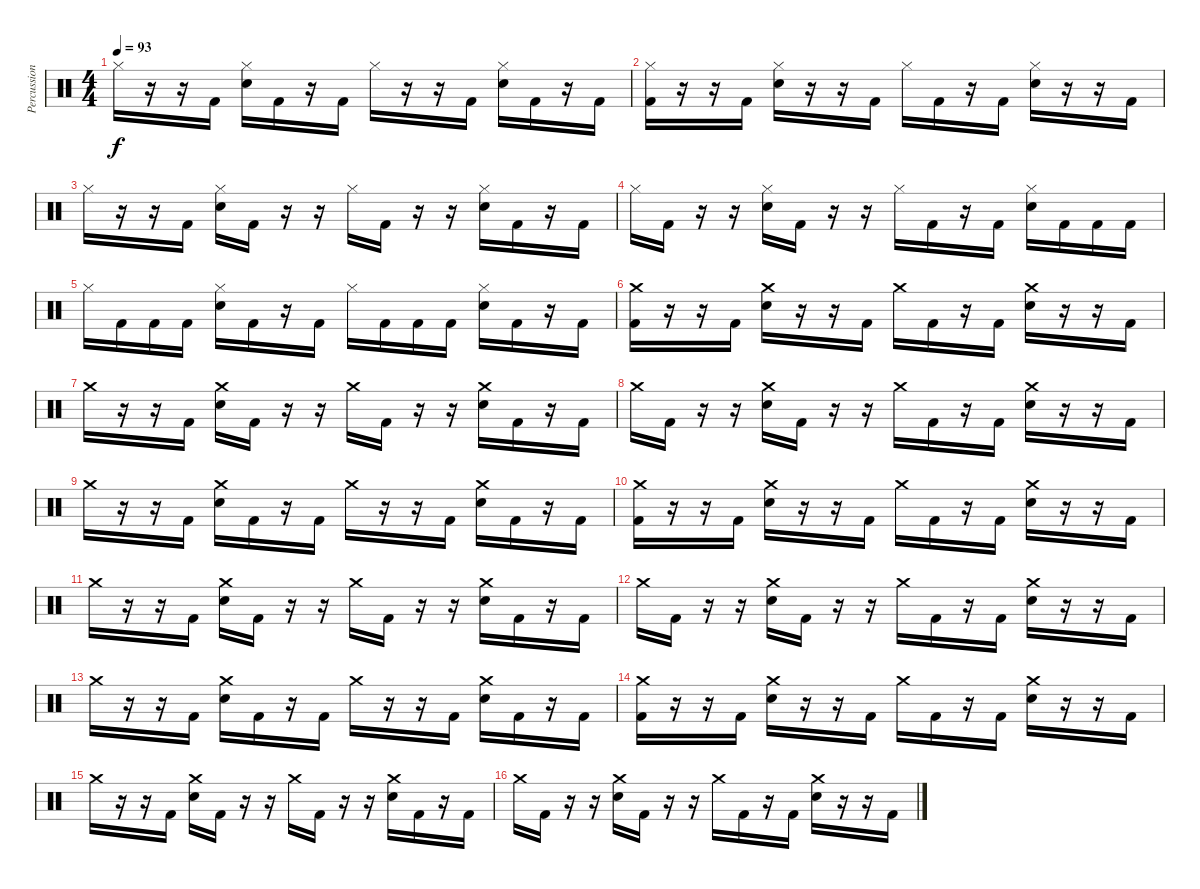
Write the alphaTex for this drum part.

\track ("Percussions" "Percussion") {instrument percussion}
\staff {score}
\articulation defaults
\ts (4 4)
\tempo 93
\clef neutral
\ks c "Hi-Hat (closed)".16{dy f}
r.16 r.16 "Kick (hit) 2".16 ("Hi-Hat (closed)" "Electric Snare (hit)").16 "Kick (hit) 2".16 r.16 "Kick (hit) 2".16 "Hi-Hat (closed)".16 r.16 r.16 "Kick (hit) 2".16 ("Hi-Hat (closed)" "Electric Snare (hit)").16 "Kick (hit) 2".16 r.16 "Kick (hit) 2".16 |
("Hi-Hat (closed)" "Kick (hit) 2").16 r.16 r.16 "Kick (hit) 2".16 ("Hi-Hat (closed)" "Electric Snare (hit)").16 r.16 r.16 "Kick (hit) 2".16 "Hi-Hat (closed)".16 "Kick (hit) 2".16 r.16 "Kick (hit) 2".16 ("Hi-Hat (closed)" "Electric Snare (hit)").16 r.16 r.16 "Kick (hit) 2".16 |
"Hi-Hat (closed)".16 r.16 r.16 "Kick (hit) 2".16 ("Hi-Hat (closed)" "Electric Snare (hit)").16 "Kick (hit) 2".16 r.16 r.16 "Hi-Hat (closed)".16 "Kick (hit) 2".16 r.16 r.16 ("Hi-Hat (closed)" "Electric Snare (hit)").16 "Kick (hit) 2".16 r.16 "Kick (hit) 2".16 |
"Hi-Hat (closed)".16 "Kick (hit) 2".16 r.16 r.16 ("Hi-Hat (closed)" "Electric Snare (hit)").16 "Kick (hit) 2".16 r.16 r.16 "Hi-Hat (closed)".16 "Kick (hit) 2".16 r.16 "Kick (hit) 2".16 ("Hi-Hat (closed)" "Electric Snare (hit)").16 "Kick (hit) 2".16 "Kick (hit) 2".16 "Kick (hit) 2".16 |
"Hi-Hat (closed)".16 "Kick (hit) 2".16 "Kick (hit) 2".16 "Kick (hit) 2".16 ("Hi-Hat (closed)" "Electric Snare (hit)").16 "Kick (hit) 2".16 r.16 "Kick (hit) 2".16 "Hi-Hat (closed)".16 "Kick (hit) 2".16 "Kick (hit) 2".16 "Kick (hit) 2".16 ("Hi-Hat (closed)" "Electric Snare (hit)").16 "Kick (hit) 2".16 r.16 "Kick (hit) 2".16 |
("Crash medium (hit)" "Kick (hit) 2").16 r.16 r.16 "Kick (hit) 2".16 ("Crash medium (hit)" "Electric Snare (hit)").16 r.16 r.16 "Kick (hit) 2".16 "Crash medium (hit)".16 "Kick (hit) 2".16 r.16 "Kick (hit) 2".16 ("Crash medium (hit)" "Electric Snare (hit)").16 r.16 r.16 "Kick (hit) 2".16 |
"Crash medium (hit)".16 r.16 r.16 "Kick (hit) 2".16 ("Crash medium (hit)" "Electric Snare (hit)").16 "Kick (hit) 2".16 r.16 r.16 "Crash medium (hit)".16 "Kick (hit) 2".16 r.16 r.16 ("Crash medium (hit)" "Electric Snare (hit)").16 "Kick (hit) 2".16 r.16 "Kick (hit) 2".16 |
"Crash medium (hit)".16 "Kick (hit) 2".16 r.16 r.16 ("Crash medium (hit)" "Electric Snare (hit)").16 "Kick (hit) 2".16 r.16 r.16 "Crash medium (hit)".16 "Kick (hit) 2".16 r.16 "Kick (hit) 2".16 ("Crash medium (hit)" "Electric Snare (hit)").16 r.16 r.16 "Kick (hit) 2".16 |
"Crash medium (hit)".16 r.16 r.16 "Kick (hit) 2".16 ("Crash medium (hit)" "Electric Snare (hit)").16 "Kick (hit) 2".16 r.16 "Kick (hit) 2".16 "Crash medium (hit)".16 r.16 r.16 "Kick (hit) 2".16 ("Crash medium (hit)" "Electric Snare (hit)").16 "Kick (hit) 2".16 r.16 "Kick (hit) 2".16 |
("Crash medium (hit)" "Kick (hit) 2").16 r.16 r.16 "Kick (hit) 2".16 ("Crash medium (hit)" "Electric Snare (hit)").16 r.16 r.16 "Kick (hit) 2".16 "Crash medium (hit)".16 "Kick (hit) 2".16 r.16 "Kick (hit) 2".16 ("Crash medium (hit)" "Electric Snare (hit)").16 r.16 r.16 "Kick (hit) 2".16 |
"Crash medium (hit)".16 r.16 r.16 "Kick (hit) 2".16 ("Crash medium (hit)" "Electric Snare (hit)").16 "Kick (hit) 2".16 r.16 r.16 "Crash medium (hit)".16 "Kick (hit) 2".16 r.16 r.16 ("Crash medium (hit)" "Electric Snare (hit)").16 "Kick (hit) 2".16 r.16 "Kick (hit) 2".16 |
"Crash medium (hit)".16 "Kick (hit) 2".16 r.16 r.16 ("Crash medium (hit)" "Electric Snare (hit)").16 "Kick (hit) 2".16 r.16 r.16 "Crash medium (hit)".16 "Kick (hit) 2".16 r.16 "Kick (hit) 2".16 ("Crash medium (hit)" "Electric Snare (hit)").16 r.16 r.16 "Kick (hit) 2".16 |
"Crash medium (hit)".16 r.16 r.16 "Kick (hit) 2".16 ("Crash medium (hit)" "Electric Snare (hit)").16 "Kick (hit) 2".16 r.16 "Kick (hit) 2".16 "Crash medium (hit)".16 r.16 r.16 "Kick (hit) 2".16 ("Crash medium (hit)" "Electric Snare (hit)").16 "Kick (hit) 2".16 r.16 "Kick (hit) 2".16 |
("Crash medium (hit)" "Kick (hit) 2").16 r.16 r.16 "Kick (hit) 2".16 ("Crash medium (hit)" "Electric Snare (hit)").16 r.16 r.16 "Kick (hit) 2".16 "Crash medium (hit)".16 "Kick (hit) 2".16 r.16 "Kick (hit) 2".16 ("Crash medium (hit)" "Electric Snare (hit)").16 r.16 r.16 "Kick (hit) 2".16 |
"Crash medium (hit)".16 r.16 r.16 "Kick (hit) 2".16 ("Crash medium (hit)" "Electric Snare (hit)").16 "Kick (hit) 2".16 r.16 r.16 "Crash medium (hit)".16 "Kick (hit) 2".16 r.16 r.16 ("Crash medium (hit)" "Electric Snare (hit)").16 "Kick (hit) 2".16 r.16 "Kick (hit) 2".16 |
"Crash medium (hit)".16 "Kick (hit) 2".16 r.16 r.16 ("Crash medium (hit)" "Electric Snare (hit)").16 "Kick (hit) 2".16 r.16 r.16 "Crash medium (hit)".16 "Kick (hit) 2".16 r.16 "Kick (hit) 2".16 ("Crash medium (hit)" "Electric Snare (hit)").16 r.16 r.16 "Kick (hit) 2".16
